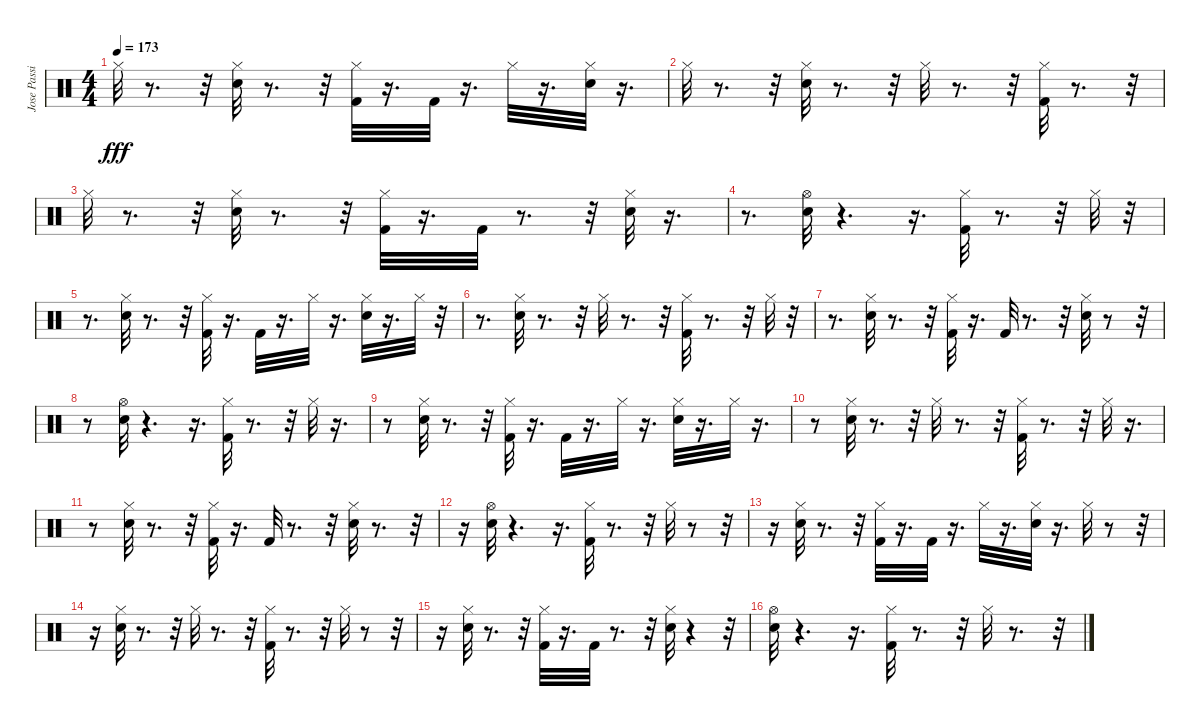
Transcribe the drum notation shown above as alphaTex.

\track ("Jose Passilas-Drums" "Jose Passi") {instrument percussion}
\staff {score}
\articulation defaults
\ts (4 4)
\tempo 173
\clef neutral
\ks c "Hi-Hat (closed)".32{dy fff}
r.8{d} r.32 ("Electric Snare (hit)" "Hi-Hat (closed)").32 r.8{d} r.32 ("Kick (hit) 2" "Hi-Hat (closed)").32 r.16{d} "Kick (hit) 2".32 r.16{d} "Hi-Hat (closed)".32 r.16{d} ("Electric Snare (hit)" "Hi-Hat (closed)").32 r.16{d} |
"Hi-Hat (closed)".32 r.8{d} r.32 ("Electric Snare (hit)" "Hi-Hat (closed)").32 r.8{d} r.32 "Hi-Hat (closed)".32 r.8{d} r.32 ("Kick (hit) 2" "Hi-Hat (closed)").32 r.8{d} r.32 |
"Hi-Hat (closed)".32 r.8{d} r.32 ("Electric Snare (hit)" "Hi-Hat (closed)").32 r.8{d} r.32 ("Kick (hit) 2" "Hi-Hat (closed)").32 r.16{d} "Kick (hit) 2".32 r.8{d} r.32 ("Electric Snare (hit)" "Hi-Hat (closed)").32 r.16{d} |
r.8{d} ("Electric Snare (hit)" "Hi-Hat (open)").32 r.4{d} r.16{d} ("Hi-Hat (closed)" "Kick (hit) 2").32 r.8{d} r.32 "Hi-Hat (closed)".32 r.32 |
r.8{d} ("Hi-Hat (closed)" "Electric Snare (hit)").32 r.8{d} r.32 ("Hi-Hat (closed)" "Kick (hit) 2").32 r.16{d} "Kick (hit) 2".32 r.16{d} "Hi-Hat (closed)".32 r.16{d} ("Hi-Hat (closed)" "Electric Snare (hit)").32 r.16{d} "Hi-Hat (closed)".32 r.32 |
r.8{d} ("Hi-Hat (closed)" "Electric Snare (hit)").32 r.8{d} r.32 "Hi-Hat (closed)".32 r.8{d} r.32 ("Hi-Hat (closed)" "Kick (hit) 2").32 r.8{d} r.32 "Hi-Hat (closed)".32 r.32 |
r.8{d} ("Hi-Hat (closed)" "Electric Snare (hit)").32 r.8{d} r.32 ("Hi-Hat (closed)" "Kick (hit) 2").32 r.16{d} "Kick (hit) 2".32 r.8{d} r.32 ("Hi-Hat (closed)" "Electric Snare (hit)").32 r.8 r.32 |
r.8 ("Hi-Hat (open)" "Electric Snare (hit)").32 r.4{d} r.16{d} ("Hi-Hat (closed)" "Kick (hit) 2").32 r.8{d} r.32 "Hi-Hat (closed)".32 r.16{d} |
r.8 ("Hi-Hat (closed)" "Electric Snare (hit)").32 r.8{d} r.32 ("Hi-Hat (closed)" "Kick (hit) 2").32 r.16{d} "Kick (hit) 2".32 r.16{d} "Hi-Hat (closed)".32 r.16{d} ("Hi-Hat (closed)" "Electric Snare (hit)").32 r.16{d} "Hi-Hat (closed)".32 r.16{d} |
r.8 ("Hi-Hat (closed)" "Electric Snare (hit)").32 r.8{d} r.32 "Hi-Hat (closed)".32 r.8{d} r.32 ("Hi-Hat (closed)" "Kick (hit) 2").32 r.8{d} r.32 "Hi-Hat (closed)".32 r.16{d} |
r.8 ("Hi-Hat (closed)" "Electric Snare (hit)").32 r.8{d} r.32 ("Hi-Hat (closed)" "Kick (hit) 2").32 r.16{d} "Kick (hit) 2".32 r.8{d} r.32 ("Hi-Hat (closed)" "Electric Snare (hit)").32 r.8{d} r.32 |
r.16 ("Hi-Hat (open)" "Electric Snare (hit)").32 r.4{d} r.16{d} ("Hi-Hat (closed)" "Kick (hit) 2").32 r.8{d} r.32 "Hi-Hat (closed)".32 r.8 r.32 |
r.16 ("Hi-Hat (closed)" "Electric Snare (hit)").32 r.8{d} r.32 ("Hi-Hat (closed)" "Kick (hit) 2").32 r.16{d} "Kick (hit) 2".32 r.16{d} "Hi-Hat (closed)".32 r.16{d} ("Hi-Hat (closed)" "Electric Snare (hit)").32 r.16{d} "Hi-Hat (closed)".32 r.8 r.32 |
r.16 ("Hi-Hat (closed)" "Electric Snare (hit)").32 r.8{d} r.32 "Hi-Hat (closed)".32 r.8{d} r.32 ("Hi-Hat (closed)" "Kick (hit) 2").32 r.8{d} r.32 "Hi-Hat (closed)".32 r.8 r.32 |
r.16 ("Hi-Hat (closed)" "Electric Snare (hit)").32 r.8{d} r.32 ("Hi-Hat (closed)" "Kick (hit) 2").32 r.16{d} "Kick (hit) 2".32 r.8{d} r.32 ("Hi-Hat (closed)" "Electric Snare (hit)").32 r.4 r.32 |
("Hi-Hat (open)" "Electric Snare (hit)").32 r.4{d} r.16{d} ("Kick (hit) 2" "Hi-Hat (closed)").32 r.8{d} r.32 "Hi-Hat (closed)".32 r.8{d} r.32
